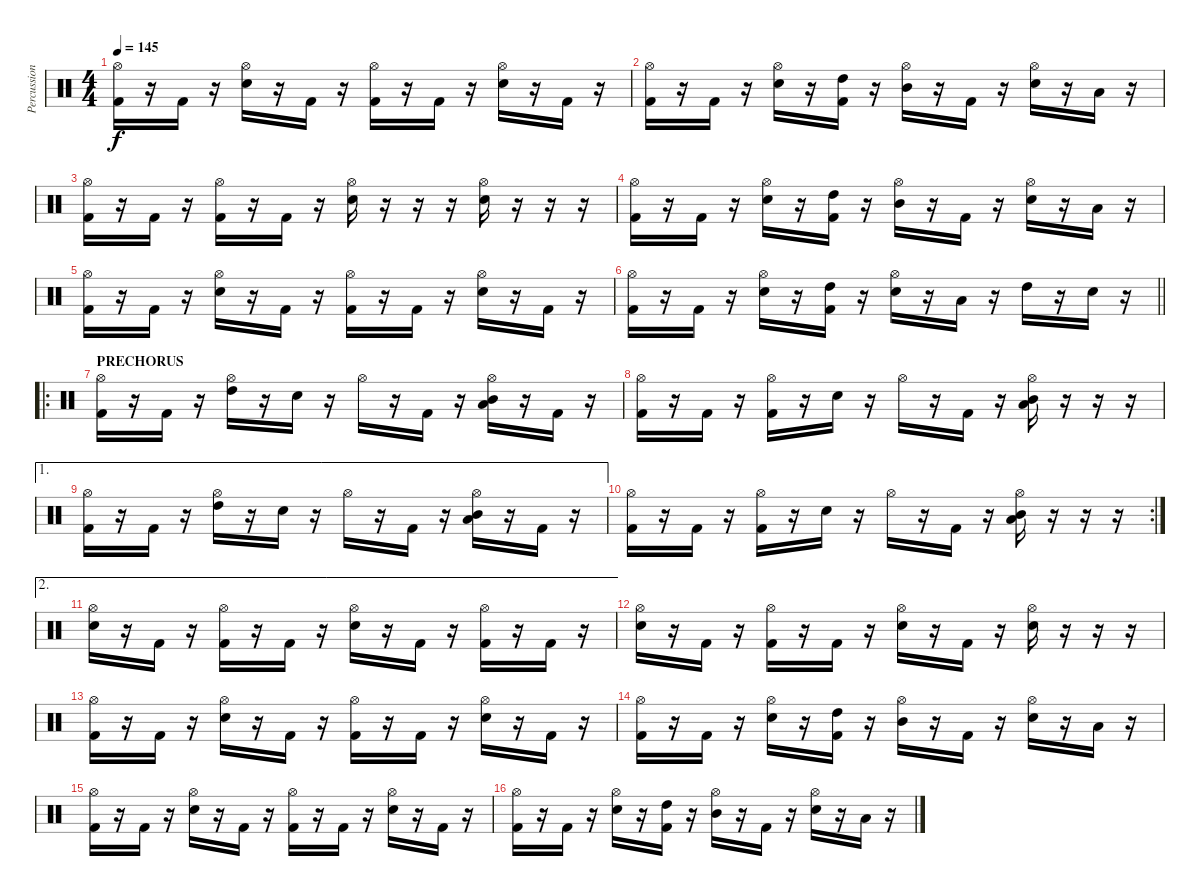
\track ("Percussion" "Percussion") {instrument percussion}
\staff {score}
\articulation defaults
\ts (4 4)
\tempo 145
\clef neutral
\ks c
("Kick (hit) 2" "Hi-Hat (open)").16{dy f} r.16 "Kick (hit) 2".16 r.16 ("Snare (hit) 2" "Hi-Hat (open)").16 r.16 "Kick (hit) 2".16 r.16 ("Kick (hit) 2" "Hi-Hat (open)").16 r.16 "Kick (hit) 2".16 r.16 ("Snare (hit) 2" "Hi-Hat (open)").16 r.16 "Kick (hit) 2".16 r.16 |
("Kick (hit) 2" "Hi-Hat (open)").16 r.16 "Kick (hit) 2".16 r.16 ("Snare (hit) 2" "Hi-Hat (open)").16 r.16 ("High Tom (hit)" "Kick (hit) 2").16 r.16 ("Mid Tom (hit)" "Hi-Hat (open)").16 r.16 "Kick (hit) 2".16 r.16 ("Snare (hit) 2" "Hi-Hat (open)").16 r.16 "Low Floor Tom (hit)".16 r.16 |
("Kick (hit) 2" "Hi-Hat (open)").16 r.16 "Kick (hit) 2".16 r.16 ("Kick (hit) 2" "Hi-Hat (open)").16 r.16 "Kick (hit) 2".16 r.16 ("Snare (hit) 2" "Hi-Hat (open)").16 r.16 r.16 r.16 ("Snare (hit) 2" "Hi-Hat (open)").16 r.16 r.16 r.16 |
("Kick (hit) 2" "Hi-Hat (open)").16 r.16 "Kick (hit) 2".16 r.16 ("Snare (hit) 2" "Hi-Hat (open)").16 r.16 ("High Tom (hit)" "Kick (hit) 2").16 r.16 ("Mid Tom (hit)" "Hi-Hat (open)").16 r.16 "Kick (hit) 2".16 r.16 ("Snare (hit) 2" "Hi-Hat (open)").16 r.16 "Low Floor Tom (hit)".16 r.16 |
("Kick (hit) 2" "Hi-Hat (open)").16 r.16 "Kick (hit) 2".16 r.16 ("Snare (hit) 2" "Hi-Hat (open)").16 r.16 "Kick (hit) 2".16 r.16 ("Kick (hit) 2" "Hi-Hat (open)").16 r.16 "Kick (hit) 2".16 r.16 ("Snare (hit) 2" "Hi-Hat (open)").16 r.16 "Kick (hit) 2".16 r.16 |
\barLineRight lightlight
("Kick (hit) 2" "Hi-Hat (open)").16 r.16 "Kick (hit) 2".16 r.16 ("Snare (hit) 2" "Hi-Hat (open)").16 r.16 ("High Tom (hit)" "Kick (hit) 2").16 r.16 ("Snare (hit) 2" "Hi-Hat (open)").16 r.16 "Low Tom (hit)".16 r.16 "High Tom (hit)".16 r.16 "Snare (hit) 2".16 r.16 |
\ro
\section ("" "PRECHORUS")
("Kick (hit) 2" "Hi-Hat (open)").16 r.16 "Kick (hit) 2".16 r.16 ("High Tom (hit)" "Hi-Hat (open)").16 r.16 "Snare (hit) 2".16 r.16 "Hi-Hat (open)".16 r.16 "Kick (hit) 2".16 r.16 ("Low Floor Tom (hit)" "Mid Tom (hit)" "Hi-Hat (open)").16 r.16 "Kick (hit) 2".16 r.16 |
("Kick (hit) 2" "Hi-Hat (open)").16 r.16 "Kick (hit) 2".16 r.16 ("Kick (hit) 2" "Hi-Hat (open)").16 r.16 "Snare (hit) 2".16 r.16 "Hi-Hat (open)".16 r.16 "Kick (hit) 2".16 r.16 ("Low Floor Tom (hit)" "Mid Tom (hit)" "Hi-Hat (open)").16 r.16 r.16 r.16 |
\ae 1
("Kick (hit) 2" "Hi-Hat (open)").16 r.16 "Kick (hit) 2".16 r.16 ("High Tom (hit)" "Hi-Hat (open)").16 r.16 "Snare (hit) 2".16 r.16 "Hi-Hat (open)".16 r.16 "Kick (hit) 2".16 r.16 ("Low Floor Tom (hit)" "Mid Tom (hit)" "Hi-Hat (open)").16 r.16 "Kick (hit) 2".16 r.16 |
\rc 2
("Kick (hit) 2" "Hi-Hat (open)").16 r.16 "Kick (hit) 2".16 r.16 ("Kick (hit) 2" "Hi-Hat (open)").16 r.16 "Snare (hit) 2".16 r.16 "Hi-Hat (open)".16 r.16 "Kick (hit) 2".16 r.16 ("Low Floor Tom (hit)" "Mid Tom (hit)" "Hi-Hat (open)").16 r.16 r.16 r.16 |
\ae 2
("Snare (hit) 2" "Hi-Hat (open)").16 r.16 "Kick (hit) 2".16 r.16 ("Kick (hit) 2" "Hi-Hat (open)").16 r.16 "Kick (hit) 2".16 r.16 ("Snare (hit) 2" "Hi-Hat (open)").16 r.16 "Kick (hit) 2".16 r.16 ("Kick (hit) 2" "Hi-Hat (open)").16 r.16 "Kick (hit) 2".16 r.16 |
("Snare (hit) 2" "Hi-Hat (open)").16 r.16 "Kick (hit) 2".16 r.16 ("Kick (hit) 2" "Hi-Hat (open)").16 r.16 "Kick (hit) 2".16 r.16 ("Snare (hit) 2" "Hi-Hat (open)").16 r.16 "Kick (hit) 2".16 r.16 ("Snare (hit) 2" "Hi-Hat (open)").16 r.16 r.16 r.16 |
("Kick (hit) 2" "Hi-Hat (open)").16 r.16 "Kick (hit) 2".16 r.16 ("Snare (hit) 2" "Hi-Hat (open)").16 r.16 "Kick (hit) 2".16 r.16 ("Kick (hit) 2" "Hi-Hat (open)").16 r.16 "Kick (hit) 2".16 r.16 ("Snare (hit) 2" "Hi-Hat (open)").16 r.16 "Kick (hit) 2".16 r.16 |
("Kick (hit) 2" "Hi-Hat (open)").16 r.16 "Kick (hit) 2".16 r.16 ("Snare (hit) 2" "Hi-Hat (open)").16 r.16 ("High Tom (hit)" "Kick (hit) 2").16 r.16 ("Mid Tom (hit)" "Hi-Hat (open)").16 r.16 "Kick (hit) 2".16 r.16 ("Snare (hit) 2" "Hi-Hat (open)").16 r.16 "Low Floor Tom (hit)".16 r.16 |
("Kick (hit) 2" "Hi-Hat (open)").16 r.16 "Kick (hit) 2".16 r.16 ("Snare (hit) 2" "Hi-Hat (open)").16 r.16 "Kick (hit) 2".16 r.16 ("Kick (hit) 2" "Hi-Hat (open)").16 r.16 "Kick (hit) 2".16 r.16 ("Snare (hit) 2" "Hi-Hat (open)").16 r.16 "Kick (hit) 2".16 r.16 |
("Kick (hit) 2" "Hi-Hat (open)").16 r.16 "Kick (hit) 2".16 r.16 ("Snare (hit) 2" "Hi-Hat (open)").16 r.16 ("High Tom (hit)" "Kick (hit) 2").16 r.16 ("Mid Tom (hit)" "Hi-Hat (open)").16 r.16 "Kick (hit) 2".16 r.16 ("Snare (hit) 2" "Hi-Hat (open)").16 r.16 "Low Floor Tom (hit)".16 r.16
